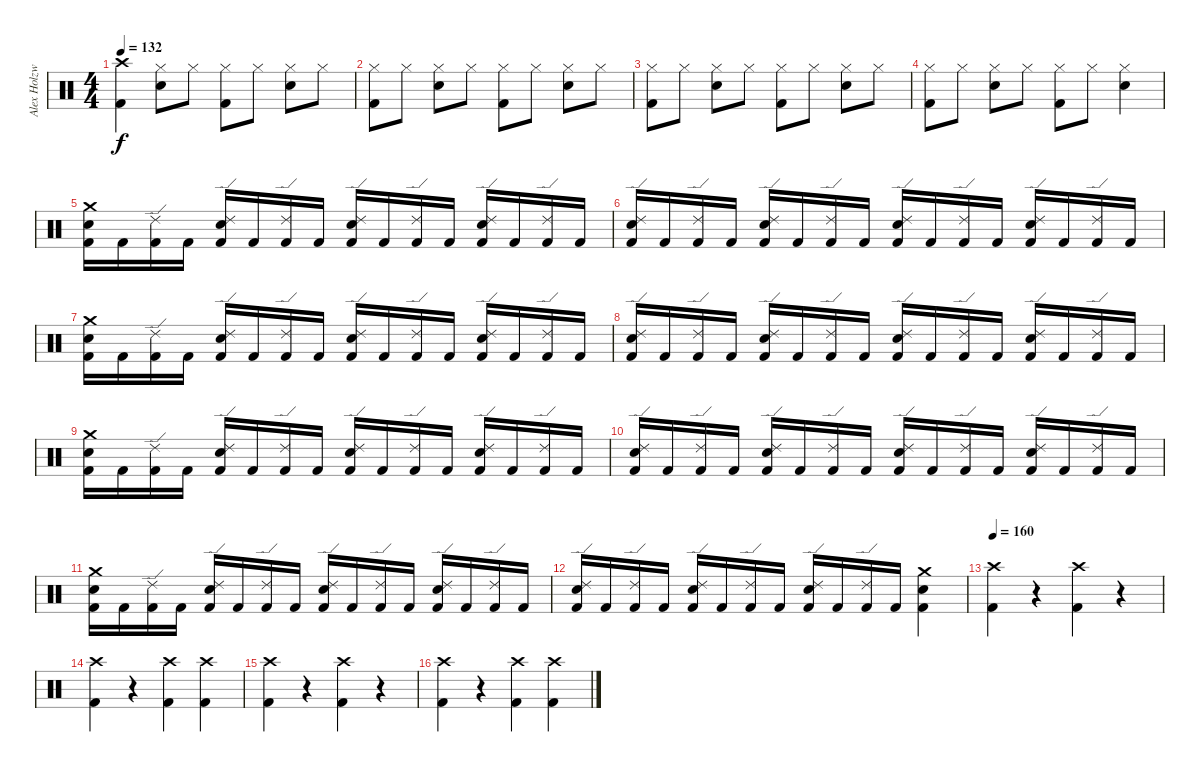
\track ("Alex Holzwarth" "Alex Holzw") {instrument percussion}
\staff {score}
\articulation defaults
\ts (4 4)
\tempo 132
\clef neutral
\ks c
("Crash high (hit)" "Kick (hit) 2").4{dy f} ("Hi-Hat (closed)" "Snare (hit) 2").8 "Hi-Hat (closed)".8 ("Hi-Hat (closed)" "Kick (hit) 2").8 "Hi-Hat (closed)".8 ("Hi-Hat (closed)" "Snare (hit) 2").8 "Hi-Hat (closed)".8 |
("Hi-Hat (closed)" "Kick (hit) 2").8 "Hi-Hat (closed)".8 ("Hi-Hat (closed)" "Snare (hit) 2").8 "Hi-Hat (closed)".8 ("Hi-Hat (closed)" "Kick (hit) 2").8 "Hi-Hat (closed)".8 ("Hi-Hat (closed)" "Snare (hit) 2").8 "Hi-Hat (closed)".8 |
("Hi-Hat (closed)" "Kick (hit) 2").8 "Hi-Hat (closed)".8 ("Hi-Hat (closed)" "Snare (hit) 2").8 "Hi-Hat (closed)".8 ("Hi-Hat (closed)" "Kick (hit) 2").8 "Hi-Hat (closed)".8 ("Hi-Hat (closed)" "Snare (hit) 2").8 "Hi-Hat (closed)".8 |
("Hi-Hat (closed)" "Kick (hit) 2").8 "Hi-Hat (closed)".8 ("Hi-Hat (closed)" "Snare (hit) 2").8 "Hi-Hat (closed)".8 ("Hi-Hat (closed)" "Kick (hit) 2").8 "Hi-Hat (closed)".8 ("Hi-Hat (closed)" "Snare (hit) 2").4 |
("Crash medium (hit)" "Snare (hit) 2" "Kick (hit) 2").16 "Kick (hit) 2".16 ("Ride (edge) 2" "Kick (hit) 2").16 "Kick (hit) 2".16 ("Ride (edge) 2" "Snare (hit) 2" "Kick (hit) 2").16 "Kick (hit) 2".16 ("Ride (edge) 2" "Kick (hit) 2").16 "Kick (hit) 2".16 ("Ride (edge) 2" "Snare (hit) 2" "Kick (hit) 2").16 "Kick (hit) 2".16 ("Ride (edge) 2" "Kick (hit) 2").16 "Kick (hit) 2".16 ("Ride (edge) 2" "Snare (hit) 2" "Kick (hit) 2").16 "Kick (hit) 2".16 ("Ride (edge) 2" "Kick (hit) 2").16 "Kick (hit) 2".16 |
("Ride (edge) 2" "Snare (hit) 2" "Kick (hit) 2").16 "Kick (hit) 2".16 ("Ride (edge) 2" "Kick (hit) 2").16 "Kick (hit) 2".16 ("Ride (edge) 2" "Snare (hit) 2" "Kick (hit) 2").16 "Kick (hit) 2".16 ("Ride (edge) 2" "Kick (hit) 2").16 "Kick (hit) 2".16 ("Ride (edge) 2" "Snare (hit) 2" "Kick (hit) 2").16 "Kick (hit) 2".16 ("Ride (edge) 2" "Kick (hit) 2").16 "Kick (hit) 2".16 ("Ride (edge) 2" "Snare (hit) 2" "Kick (hit) 2").16 "Kick (hit) 2".16 ("Ride (edge) 2" "Kick (hit) 2").16 "Kick (hit) 2".16 |
("Crash medium (hit)" "Snare (hit) 2" "Kick (hit) 2").16 "Kick (hit) 2".16 ("Ride (edge) 2" "Kick (hit) 2").16 "Kick (hit) 2".16 ("Ride (edge) 2" "Snare (hit) 2" "Kick (hit) 2").16 "Kick (hit) 2".16 ("Ride (edge) 2" "Kick (hit) 2").16 "Kick (hit) 2".16 ("Ride (edge) 2" "Snare (hit) 2" "Kick (hit) 2").16 "Kick (hit) 2".16 ("Ride (edge) 2" "Kick (hit) 2").16 "Kick (hit) 2".16 ("Ride (edge) 2" "Snare (hit) 2" "Kick (hit) 2").16 "Kick (hit) 2".16 ("Ride (edge) 2" "Kick (hit) 2").16 "Kick (hit) 2".16 |
("Ride (edge) 2" "Snare (hit) 2" "Kick (hit) 2").16 "Kick (hit) 2".16 ("Ride (edge) 2" "Kick (hit) 2").16 "Kick (hit) 2".16 ("Ride (edge) 2" "Snare (hit) 2" "Kick (hit) 2").16 "Kick (hit) 2".16 ("Ride (edge) 2" "Kick (hit) 2").16 "Kick (hit) 2".16 ("Ride (edge) 2" "Snare (hit) 2" "Kick (hit) 2").16 "Kick (hit) 2".16 ("Ride (edge) 2" "Kick (hit) 2").16 "Kick (hit) 2".16 ("Ride (edge) 2" "Snare (hit) 2" "Kick (hit) 2").16 "Kick (hit) 2".16 ("Ride (edge) 2" "Kick (hit) 2").16 "Kick (hit) 2".16 |
("Crash medium (hit)" "Snare (hit) 2" "Kick (hit) 2").16 "Kick (hit) 2".16 ("Ride (edge) 2" "Kick (hit) 2").16 "Kick (hit) 2".16 ("Ride (edge) 2" "Snare (hit) 2" "Kick (hit) 2").16 "Kick (hit) 2".16 ("Ride (edge) 2" "Kick (hit) 2").16 "Kick (hit) 2".16 ("Ride (edge) 2" "Snare (hit) 2" "Kick (hit) 2").16 "Kick (hit) 2".16 ("Ride (edge) 2" "Kick (hit) 2").16 "Kick (hit) 2".16 ("Ride (edge) 2" "Snare (hit) 2" "Kick (hit) 2").16 "Kick (hit) 2".16 ("Ride (edge) 2" "Kick (hit) 2").16 "Kick (hit) 2".16 |
("Ride (edge) 2" "Snare (hit) 2" "Kick (hit) 2").16 "Kick (hit) 2".16 ("Ride (edge) 2" "Kick (hit) 2").16 "Kick (hit) 2".16 ("Ride (edge) 2" "Snare (hit) 2" "Kick (hit) 2").16 "Kick (hit) 2".16 ("Ride (edge) 2" "Kick (hit) 2").16 "Kick (hit) 2".16 ("Ride (edge) 2" "Snare (hit) 2" "Kick (hit) 2").16 "Kick (hit) 2".16 ("Ride (edge) 2" "Kick (hit) 2").16 "Kick (hit) 2".16 ("Ride (edge) 2" "Snare (hit) 2" "Kick (hit) 2").16 "Kick (hit) 2".16 ("Ride (edge) 2" "Kick (hit) 2").16 "Kick (hit) 2".16 |
("Crash medium (hit)" "Snare (hit) 2" "Kick (hit) 2").16 "Kick (hit) 2".16 ("Ride (edge) 2" "Kick (hit) 2").16 "Kick (hit) 2".16 ("Ride (edge) 2" "Snare (hit) 2" "Kick (hit) 2").16 "Kick (hit) 2".16 ("Ride (edge) 2" "Kick (hit) 2").16 "Kick (hit) 2".16 ("Ride (edge) 2" "Snare (hit) 2" "Kick (hit) 2").16 "Kick (hit) 2".16 ("Ride (edge) 2" "Kick (hit) 2").16 "Kick (hit) 2".16 ("Ride (edge) 2" "Snare (hit) 2" "Kick (hit) 2").16 "Kick (hit) 2".16 ("Ride (edge) 2" "Kick (hit) 2").16 "Kick (hit) 2".16 |
("Ride (edge) 2" "Snare (hit) 2" "Kick (hit) 2").16 "Kick (hit) 2".16 ("Ride (edge) 2" "Kick (hit) 2").16 "Kick (hit) 2".16 ("Ride (edge) 2" "Snare (hit) 2" "Kick (hit) 2").16 "Kick (hit) 2".16 ("Ride (edge) 2" "Kick (hit) 2").16 "Kick (hit) 2".16 ("Ride (edge) 2" "Snare (hit) 2" "Kick (hit) 2").16 "Kick (hit) 2".16 ("Ride (edge) 2" "Kick (hit) 2").16 "Kick (hit) 2".16 ("Crash medium (hit)" "Snare (hit) 2" "Kick (hit) 2").4 |
\tempo 160
("Crash high (hit)" "Kick (hit) 2").4 r.4 ("Crash high (hit)" "Kick (hit) 2").4 r.4 |
("Crash high (hit)" "Kick (hit) 2").4 r.4 ("Crash high (hit)" "Kick (hit) 2").4 ("Crash high (hit)" "Kick (hit) 2").4 |
("Crash high (hit)" "Kick (hit) 2").4 r.4 ("Crash high (hit)" "Kick (hit) 2").4 r.4 |
("Crash high (hit)" "Kick (hit) 2").4 r.4 ("Crash high (hit)" "Kick (hit) 2").4 ("Crash high (hit)" "Kick (hit) 2").4
